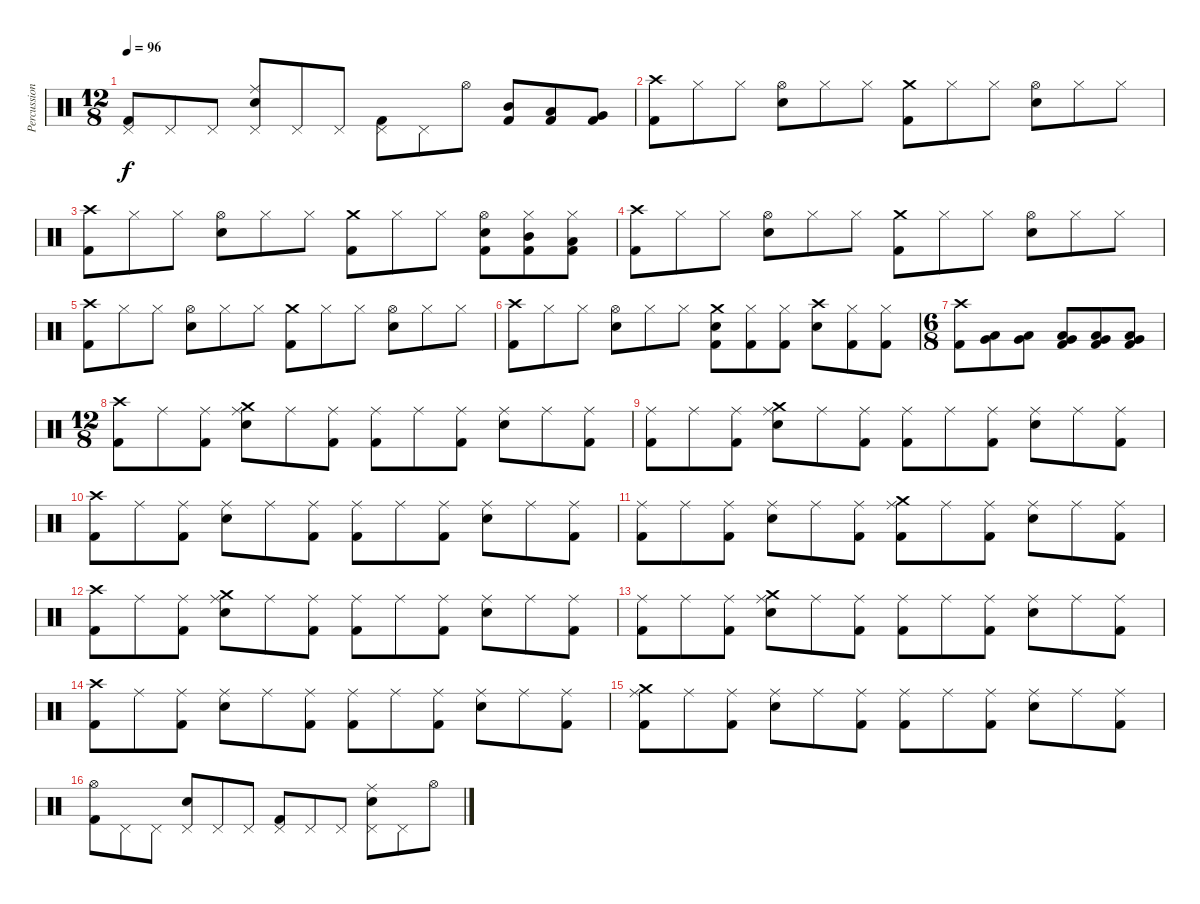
\track ("Percussion" "Percussion") {instrument percussion}
\staff {score}
\articulation defaults
\ts (12 8)
\tempo 96
\clef neutral
\ks c
("Pedal Hi-Hat (hit)" "Kick (hit) 2").8{dy f} "Pedal Hi-Hat (hit)".8 "Pedal Hi-Hat (hit)".8 ("Pedal Hi-Hat (hit)" "Ride (middle)" "Electric Snare (hit)").8 "Pedal Hi-Hat (hit)".8 "Pedal Hi-Hat (hit)".8 ("Pedal Hi-Hat (hit)" "Kick (hit) 2").8 "Pedal Hi-Hat (hit)".8 "Hi-Hat (open)".8 ("Mid Tom (hit)" "Kick (hit) 2").8 ("Low Tom (hit)" "Kick (hit) 2").8 ("Very Low Tom (hit)" "Kick (hit) 2").8 |
("Crash high (hit)" "Kick (hit) 2").8 "Hi-Hat (closed)".8 "Hi-Hat (closed)".8 ("Hi-Hat (open)" "Electric Snare (hit)").8 "Hi-Hat (closed)".8 "Hi-Hat (closed)".8 ("Crash medium (hit)" "Kick (hit) 2").8 "Hi-Hat (closed)".8 "Hi-Hat (closed)".8 ("Hi-Hat (open)" "Electric Snare (hit)").8 "Hi-Hat (closed)".8 "Hi-Hat (closed)".8 |
("Crash high (hit)" "Kick (hit) 2").8 "Hi-Hat (closed)".8 "Hi-Hat (closed)".8 ("Hi-Hat (open)" "Electric Snare (hit)").8 "Hi-Hat (closed)".8 "Hi-Hat (closed)".8 ("Crash medium (hit)" "Kick (hit) 2").8 "Hi-Hat (closed)".8 "Hi-Hat (closed)".8 ("Hi-Hat (open)" "Electric Snare (hit)" "Kick (hit) 2").8 ("Hi-Hat (closed)" "Mid Tom (hit)" "Kick (hit) 2").8 ("Hi-Hat (closed)" "Low Tom (hit)" "Kick (hit) 2").8 |
("Crash high (hit)" "Kick (hit) 2").8 "Hi-Hat (closed)".8 "Hi-Hat (closed)".8 ("Hi-Hat (open)" "Electric Snare (hit)").8 "Hi-Hat (closed)".8 "Hi-Hat (closed)".8 ("Crash medium (hit)" "Kick (hit) 2").8 "Hi-Hat (closed)".8 "Hi-Hat (closed)".8 ("Hi-Hat (open)" "Electric Snare (hit)").8 "Hi-Hat (closed)".8 "Hi-Hat (closed)".8 |
("Crash high (hit)" "Kick (hit) 2").8 "Hi-Hat (closed)".8 "Hi-Hat (closed)".8 ("Hi-Hat (open)" "Electric Snare (hit)").8 "Hi-Hat (closed)".8 "Hi-Hat (closed)".8 ("Crash medium (hit)" "Kick (hit) 2").8 "Hi-Hat (closed)".8 "Hi-Hat (closed)".8 ("Hi-Hat (open)" "Electric Snare (hit)").8 "Hi-Hat (closed)".8 "Hi-Hat (closed)".8 |
("Crash high (hit)" "Kick (hit) 2").8 "Hi-Hat (closed)".8 "Hi-Hat (closed)".8 ("Hi-Hat (open)" "Electric Snare (hit)").8 "Hi-Hat (closed)".8 "Hi-Hat (closed)".8 ("Crash medium (hit)" "Electric Snare (hit)" "Kick (hit) 2").8 ("Hi-Hat (closed)" "Kick (hit) 2").8 ("Hi-Hat (closed)" "Kick (hit) 2").8 ("Crash high (hit)" "Electric Snare (hit)").8 ("Hi-Hat (closed)" "Kick (hit) 2").8 ("Hi-Hat (closed)" "Kick (hit) 2").8 |
\ts (6 8)
("Crash high (hit)" "Kick (hit) 2").8 ("Low Tom (hit)" "Very Low Tom (hit)").8 ("Low Tom (hit)" "Very Low Tom (hit)").8 ("Low Tom (hit)" "Very Low Tom (hit)" "Kick (hit) 2").8 ("Very Low Tom (hit)" "Low Floor Tom (hit)" "Kick (hit) 2").8 ("Very Low Tom (hit)" "Low Floor Tom (hit)" "Kick (hit) 2").8 |
\ts (12 8)
("Crash high (hit)" "Kick (hit) 2").8 "Ride (middle)".8 ("Ride (middle)" "Kick (hit) 2").8 ("Crash medium (hit)" "Ride (middle)" "Electric Snare (hit)").8 "Ride (middle)".8 ("Ride (middle)" "Kick (hit) 2").8 ("Ride (middle)" "Kick (hit) 2").8 "Ride (middle)".8 ("Ride (middle)" "Kick (hit) 2").8 ("Ride (middle)" "Electric Snare (hit)").8 "Ride (middle)".8 ("Ride (middle)" "Kick (hit) 2").8 |
("Ride (middle)" "Kick (hit) 2").8 "Ride (middle)".8 ("Ride (middle)" "Kick (hit) 2").8 ("Crash medium (hit)" "Ride (middle)" "Electric Snare (hit)").8 "Ride (middle)".8 ("Ride (middle)" "Kick (hit) 2").8 ("Ride (middle)" "Kick (hit) 2").8 "Ride (middle)".8 ("Ride (middle)" "Kick (hit) 2").8 ("Ride (middle)" "Electric Snare (hit)").8 "Ride (middle)".8 ("Ride (middle)" "Kick (hit) 2").8 |
("Crash high (hit)" "Kick (hit) 2").8 "Ride (middle)".8 ("Ride (middle)" "Kick (hit) 2").8 ("Ride (middle)" "Electric Snare (hit)").8 "Ride (middle)".8 ("Ride (middle)" "Kick (hit) 2").8 ("Ride (middle)" "Kick (hit) 2").8 "Ride (middle)".8 ("Ride (middle)" "Kick (hit) 2").8 ("Ride (middle)" "Electric Snare (hit)").8 "Ride (middle)".8 ("Ride (middle)" "Kick (hit) 2").8 |
("Ride (middle)" "Kick (hit) 2").8 "Ride (middle)".8 ("Ride (middle)" "Kick (hit) 2").8 ("Ride (middle)" "Electric Snare (hit)").8 "Ride (middle)".8 ("Ride (middle)" "Kick (hit) 2").8 ("Crash medium (hit)" "Ride (middle)" "Kick (hit) 2").8 "Ride (middle)".8 ("Ride (middle)" "Kick (hit) 2").8 ("Ride (middle)" "Electric Snare (hit)").8 "Ride (middle)".8 ("Ride (middle)" "Kick (hit) 2").8 |
("Crash high (hit)" "Kick (hit) 2").8 "Ride (middle)".8 ("Ride (middle)" "Kick (hit) 2").8 ("Crash medium (hit)" "Ride (middle)" "Electric Snare (hit)").8 "Ride (middle)".8 ("Ride (middle)" "Kick (hit) 2").8 ("Ride (middle)" "Kick (hit) 2").8 "Ride (middle)".8 ("Ride (middle)" "Kick (hit) 2").8 ("Ride (middle)" "Electric Snare (hit)").8 "Ride (middle)".8 ("Ride (middle)" "Kick (hit) 2").8 |
("Ride (middle)" "Kick (hit) 2").8 "Ride (middle)".8 ("Ride (middle)" "Kick (hit) 2").8 ("Crash medium (hit)" "Ride (middle)" "Electric Snare (hit)").8 "Ride (middle)".8 ("Ride (middle)" "Kick (hit) 2").8 ("Ride (middle)" "Kick (hit) 2").8 "Ride (middle)".8 ("Ride (middle)" "Kick (hit) 2").8 ("Ride (middle)" "Electric Snare (hit)").8 "Ride (middle)".8 ("Ride (middle)" "Kick (hit) 2").8 |
("Crash high (hit)" "Kick (hit) 2").8 "Ride (middle)".8 ("Ride (middle)" "Kick (hit) 2").8 ("Ride (middle)" "Electric Snare (hit)").8 "Ride (middle)".8 ("Ride (middle)" "Kick (hit) 2").8 ("Ride (middle)" "Kick (hit) 2").8 "Ride (middle)".8 ("Ride (middle)" "Kick (hit) 2").8 ("Ride (middle)" "Electric Snare (hit)").8 "Ride (middle)".8 ("Ride (middle)" "Kick (hit) 2").8 |
("Crash medium (hit)" "Ride (middle)" "Kick (hit) 2").8 "Ride (middle)".8 ("Ride (middle)" "Kick (hit) 2").8 ("Ride (middle)" "Electric Snare (hit)").8 "Ride (middle)".8 ("Ride (middle)" "Kick (hit) 2").8 ("Ride (middle)" "Kick (hit) 2").8 "Ride (middle)".8 ("Ride (middle)" "Kick (hit) 2").8 ("Ride (middle)" "Electric Snare (hit)").8 "Ride (middle)".8 ("Ride (middle)" "Kick (hit) 2").8 |
("Hi-Hat (open)" "Kick (hit) 2").8 "Pedal Hi-Hat (hit)".8 "Pedal Hi-Hat (hit)".8 ("Pedal Hi-Hat (hit)" "Electric Snare (hit)").8 "Pedal Hi-Hat (hit)".8 "Pedal Hi-Hat (hit)".8 ("Pedal Hi-Hat (hit)" "Kick (hit) 2").8 "Pedal Hi-Hat (hit)".8 "Pedal Hi-Hat (hit)".8 ("Pedal Hi-Hat (hit)" "Ride (middle)" "Electric Snare (hit)").8 "Pedal Hi-Hat (hit)".8 "Hi-Hat (open)".8
